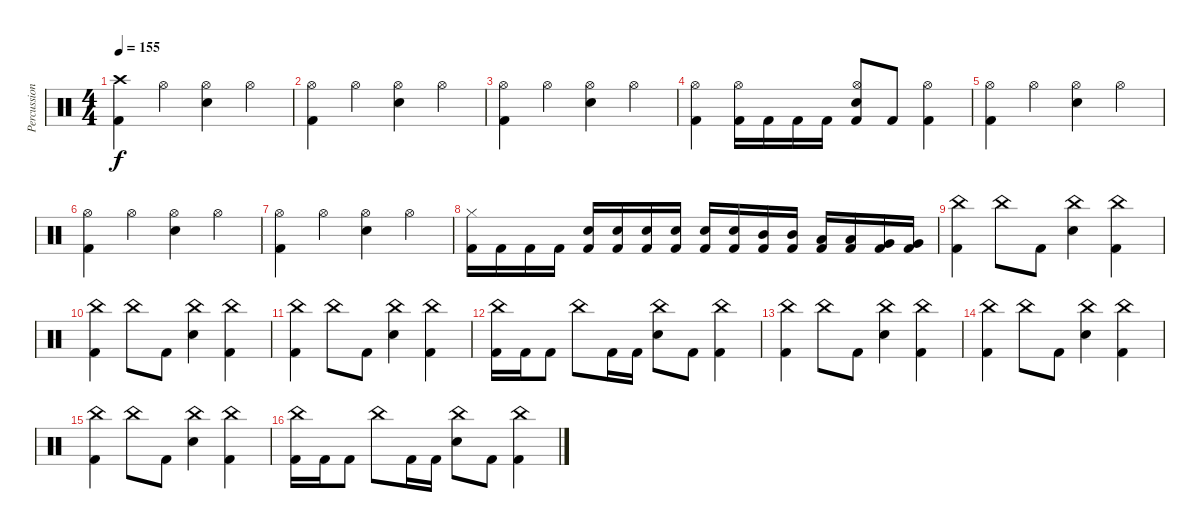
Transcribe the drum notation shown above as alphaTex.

\track ("Percussion" "Percussion") {instrument percussion}
\staff {score}
\articulation defaults
\ts (4 4)
\tempo 155
\clef neutral
\ks c
("Crash high (hit)" "Kick (hit) 2").4{dy f} "Hi-Hat (open)".4 ("Hi-Hat (open)" "Electric Snare (hit)").4 "Hi-Hat (open)".4 |
("Hi-Hat (open)" "Kick (hit) 2").4 "Hi-Hat (open)".4 ("Hi-Hat (open)" "Electric Snare (hit)").4 "Hi-Hat (open)".4 |
("Hi-Hat (open)" "Kick (hit) 2").4 "Hi-Hat (open)".4 ("Hi-Hat (open)" "Electric Snare (hit)").4 "Hi-Hat (open)".4 |
("Hi-Hat (open)" "Kick (hit) 2").4 ("Hi-Hat (open)" "Kick (hit) 2").16 "Kick (hit) 2".16 "Kick (hit) 2".16 "Kick (hit) 2".16 ("Hi-Hat (open)" "Electric Snare (hit)" "Kick (hit) 2").8 "Kick (hit) 2".8 ("Hi-Hat (open)" "Kick (hit) 2").4 |
("Hi-Hat (open)" "Kick (hit) 2").4 "Hi-Hat (open)".4 ("Hi-Hat (open)" "Electric Snare (hit)").4 "Hi-Hat (open)".4 |
("Hi-Hat (open)" "Kick (hit) 2").4 "Hi-Hat (open)".4 ("Hi-Hat (open)" "Electric Snare (hit)").4 "Hi-Hat (open)".4 |
("Hi-Hat (open)" "Kick (hit) 2").4 "Hi-Hat (open)".4 ("Hi-Hat (open)" "Electric Snare (hit)").4 "Hi-Hat (open)".4 |
("Hi-Hat (closed)" "Kick (hit) 2").16 "Kick (hit) 2".16 "Kick (hit) 2".16 "Kick (hit) 2".16 ("Electric Snare (hit)" "Kick (hit) 2").16 ("Electric Snare (hit)" "Kick (hit) 2").16 ("Electric Snare (hit)" "Kick (hit) 2").16 ("Electric Snare (hit)" "Kick (hit) 2").16 ("Electric Snare (hit)" "Kick (hit) 2").16 ("Electric Snare (hit)" "Kick (hit) 2").16 ("Mid Tom (hit)" "Kick (hit) 2").16 ("Mid Tom (hit)" "Kick (hit) 2").16 ("Low Tom (hit)" "Kick (hit) 2").16 ("Low Tom (hit)" "Kick (hit) 2").16 ("Very Low Tom (hit)" "Kick (hit) 2").16 ("Very Low Tom (hit)" "Kick (hit) 2").16 |
("China (hit)" "Kick (hit) 2").4 "China (hit)".8 "Kick (hit) 2".8 ("China (hit)" "Electric Snare (hit)").4 ("China (hit)" "Kick (hit) 2").4 |
("China (hit)" "Kick (hit) 2").4 "China (hit)".8 "Kick (hit) 2".8 ("China (hit)" "Electric Snare (hit)").4 ("China (hit)" "Kick (hit) 2").4 |
("China (hit)" "Kick (hit) 2").4 "China (hit)".8 "Kick (hit) 2".8 ("China (hit)" "Electric Snare (hit)").4 ("China (hit)" "Kick (hit) 2").4 |
("China (hit)" "Kick (hit) 2").16 "Kick (hit) 2".16 "Kick (hit) 2".8 "China (hit)".8 "Kick (hit) 2".16 "Kick (hit) 2".16 ("China (hit)" "Electric Snare (hit)").8 "Kick (hit) 2".8 ("China (hit)" "Kick (hit) 2").4 |
("China (hit)" "Kick (hit) 2").4 "China (hit)".8 "Kick (hit) 2".8 ("China (hit)" "Electric Snare (hit)").4 ("China (hit)" "Kick (hit) 2").4 |
("China (hit)" "Kick (hit) 2").4 "China (hit)".8 "Kick (hit) 2".8 ("China (hit)" "Electric Snare (hit)").4 ("China (hit)" "Kick (hit) 2").4 |
("China (hit)" "Kick (hit) 2").4 "China (hit)".8 "Kick (hit) 2".8 ("China (hit)" "Electric Snare (hit)").4 ("China (hit)" "Kick (hit) 2").4 |
("China (hit)" "Kick (hit) 2").16 "Kick (hit) 2".16 "Kick (hit) 2".8 "China (hit)".8 "Kick (hit) 2".16 "Kick (hit) 2".16 ("China (hit)" "Electric Snare (hit)").8 "Kick (hit) 2".8 ("China (hit)" "Kick (hit) 2").4
